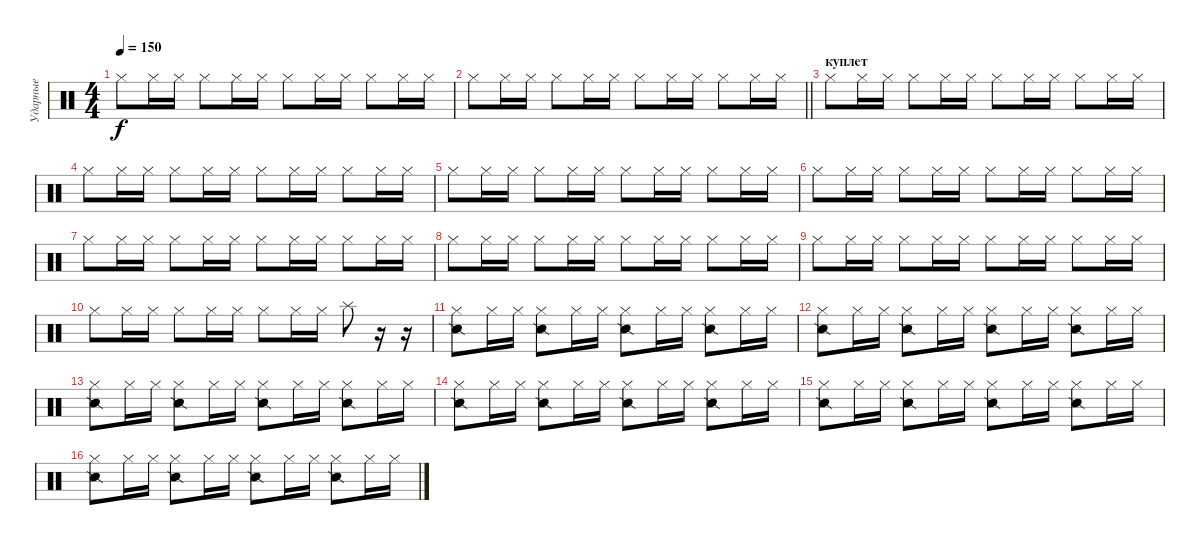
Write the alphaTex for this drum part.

\track ("Ударные" "Ударные") {instrument percussion}
\staff {score}
\articulation defaults
\ts (4 4)
\tempo 150
\clef neutral
\ks c "Hi-Hat (closed)".8{dy f} "Hi-Hat (closed)".16 "Hi-Hat (closed)".16 "Hi-Hat (closed)".8 "Hi-Hat (closed)".16 "Hi-Hat (closed)".16 "Hi-Hat (closed)".8 "Hi-Hat (closed)".16 "Hi-Hat (closed)".16 "Hi-Hat (closed)".8 "Hi-Hat (closed)".16 "Hi-Hat (closed)".16
|
\barLineRight lightlight "Hi-Hat (closed)".8 "Hi-Hat (closed)".16 "Hi-Hat (closed)".16 "Hi-Hat (closed)".8 "Hi-Hat (closed)".16 "Hi-Hat (closed)".16 "Hi-Hat (closed)".8 "Hi-Hat (closed)".16 "Hi-Hat (closed)".16 "Hi-Hat (closed)".8 "Hi-Hat (closed)".16 "Hi-Hat (closed)".16
|
\section ("" "куплет")
"Hi-Hat (closed)".8 "Hi-Hat (closed)".16 "Hi-Hat (closed)".16 "Hi-Hat (closed)".8 "Hi-Hat (closed)".16 "Hi-Hat (closed)".16 "Hi-Hat (closed)".8 "Hi-Hat (closed)".16 "Hi-Hat (closed)".16 "Hi-Hat (closed)".8 "Hi-Hat (closed)".16 "Hi-Hat (closed)".16 |
"Hi-Hat (closed)".8 "Hi-Hat (closed)".16 "Hi-Hat (closed)".16 "Hi-Hat (closed)".8 "Hi-Hat (closed)".16 "Hi-Hat (closed)".16 "Hi-Hat (closed)".8 "Hi-Hat (closed)".16 "Hi-Hat (closed)".16 "Hi-Hat (closed)".8 "Hi-Hat (closed)".16 "Hi-Hat (closed)".16 |
"Hi-Hat (closed)".8 "Hi-Hat (closed)".16 "Hi-Hat (closed)".16 "Hi-Hat (closed)".8 "Hi-Hat (closed)".16 "Hi-Hat (closed)".16 "Hi-Hat (closed)".8 "Hi-Hat (closed)".16 "Hi-Hat (closed)".16 "Hi-Hat (closed)".8 "Hi-Hat (closed)".16 "Hi-Hat (closed)".16 |
"Hi-Hat (closed)".8 "Hi-Hat (closed)".16 "Hi-Hat (closed)".16 "Hi-Hat (closed)".8 "Hi-Hat (closed)".16 "Hi-Hat (closed)".16 "Hi-Hat (closed)".8 "Hi-Hat (closed)".16 "Hi-Hat (closed)".16 "Hi-Hat (closed)".8 "Hi-Hat (closed)".16 "Hi-Hat (closed)".16 |
"Hi-Hat (closed)".8 "Hi-Hat (closed)".16 "Hi-Hat (closed)".16 "Hi-Hat (closed)".8 "Hi-Hat (closed)".16 "Hi-Hat (closed)".16 "Hi-Hat (closed)".8 "Hi-Hat (closed)".16 "Hi-Hat (closed)".16 "Hi-Hat (closed)".8 "Hi-Hat (closed)".16 "Hi-Hat (closed)".16 |
"Hi-Hat (closed)".8 "Hi-Hat (closed)".16 "Hi-Hat (closed)".16 "Hi-Hat (closed)".8 "Hi-Hat (closed)".16 "Hi-Hat (closed)".16 "Hi-Hat (closed)".8 "Hi-Hat (closed)".16 "Hi-Hat (closed)".16 "Hi-Hat (closed)".8 "Hi-Hat (closed)".16 "Hi-Hat (closed)".16 |
"Hi-Hat (closed)".8 "Hi-Hat (closed)".16 "Hi-Hat (closed)".16 "Hi-Hat (closed)".8 "Hi-Hat (closed)".16 "Hi-Hat (closed)".16 "Hi-Hat (closed)".8 "Hi-Hat (closed)".16 "Hi-Hat (closed)".16 "Hi-Hat (closed)".8 "Hi-Hat (closed)".16 "Hi-Hat (closed)".16 |
"Hi-Hat (closed)".8 "Hi-Hat (closed)".16 "Hi-Hat (closed)".16 "Hi-Hat (closed)".8 "Hi-Hat (closed)".16 "Hi-Hat (closed)".16 "Hi-Hat (closed)".8 "Hi-Hat (closed)".16 "Hi-Hat (closed)".16 "Splash (hit)".8 r.16 r.16 |
("Hi-Hat (closed)" "Snare (side stick) 2").8 "Hi-Hat (closed)".16 "Hi-Hat (closed)".16 ("Hi-Hat (closed)" "Snare (side stick) 2").8 "Hi-Hat (closed)".16 "Hi-Hat (closed)".16 ("Hi-Hat (closed)" "Snare (side stick) 2").8 "Hi-Hat (closed)".16 "Hi-Hat (closed)".16 ("Hi-Hat (closed)" "Snare (side stick) 2").8 "Hi-Hat (closed)".16 "Hi-Hat (closed)".16 |
("Hi-Hat (closed)" "Snare (side stick) 2").8 "Hi-Hat (closed)".16 "Hi-Hat (closed)".16 ("Hi-Hat (closed)" "Snare (side stick) 2").8 "Hi-Hat (closed)".16 "Hi-Hat (closed)".16 ("Hi-Hat (closed)" "Snare (side stick) 2").8 "Hi-Hat (closed)".16 "Hi-Hat (closed)".16 ("Hi-Hat (closed)" "Snare (side stick) 2").8 "Hi-Hat (closed)".16 "Hi-Hat (closed)".16 |
("Hi-Hat (closed)" "Snare (side stick) 2").8 "Hi-Hat (closed)".16 "Hi-Hat (closed)".16 ("Hi-Hat (closed)" "Snare (side stick) 2").8 "Hi-Hat (closed)".16 "Hi-Hat (closed)".16 ("Hi-Hat (closed)" "Snare (side stick) 2").8 "Hi-Hat (closed)".16 "Hi-Hat (closed)".16 ("Hi-Hat (closed)" "Snare (side stick) 2").8 "Hi-Hat (closed)".16 "Hi-Hat (closed)".16 |
("Hi-Hat (closed)" "Snare (side stick) 2").8 "Hi-Hat (closed)".16 "Hi-Hat (closed)".16 ("Hi-Hat (closed)" "Snare (side stick) 2").8 "Hi-Hat (closed)".16 "Hi-Hat (closed)".16 ("Hi-Hat (closed)" "Snare (side stick) 2").8 "Hi-Hat (closed)".16 "Hi-Hat (closed)".16 ("Hi-Hat (closed)" "Snare (side stick) 2").8 "Hi-Hat (closed)".16 "Hi-Hat (closed)".16 |
("Hi-Hat (closed)" "Snare (side stick) 2").8 "Hi-Hat (closed)".16 "Hi-Hat (closed)".16 ("Hi-Hat (closed)" "Snare (side stick) 2").8 "Hi-Hat (closed)".16 "Hi-Hat (closed)".16 ("Hi-Hat (closed)" "Snare (side stick) 2").8 "Hi-Hat (closed)".16 "Hi-Hat (closed)".16 ("Hi-Hat (closed)" "Snare (side stick) 2").8 "Hi-Hat (closed)".16 "Hi-Hat (closed)".16 |
("Hi-Hat (closed)" "Snare (side stick) 2").8 "Hi-Hat (closed)".16 "Hi-Hat (closed)".16 ("Hi-Hat (closed)" "Snare (side stick) 2").8 "Hi-Hat (closed)".16 "Hi-Hat (closed)".16 ("Hi-Hat (closed)" "Snare (side stick) 2").8 "Hi-Hat (closed)".16 "Hi-Hat (closed)".16 ("Hi-Hat (closed)" "Snare (side stick) 2").8 "Hi-Hat (closed)".16 "Hi-Hat (closed)".16
